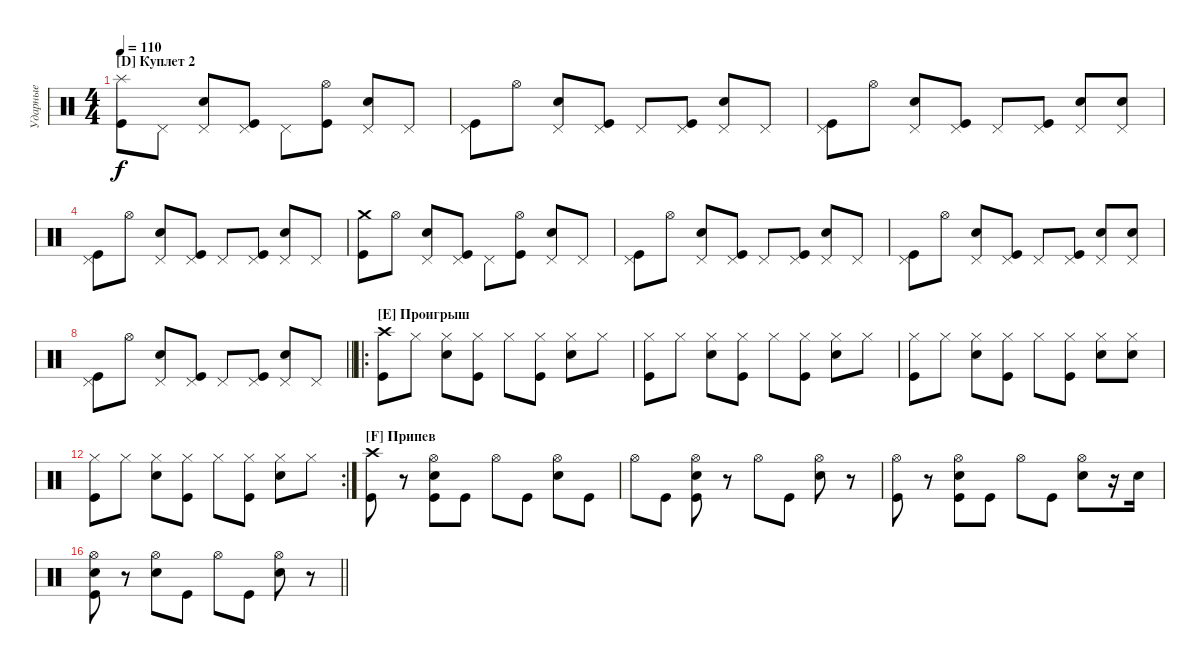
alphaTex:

\bracketExtendMode groupsimilarinstruments
\multiTrackTrackNamePolicy hidden
\firstSystemTrackNameMode fullname
\otherSystemsTrackNameMode fullname
\otherSystemsTrackNameOrientation horizontal
\defaultBarNumberDisplay FirstOfSystem
\track ("Ударные" "Drums") {multiBarRest instrument percussion}
\staff {score}
\articulation defaults
\ts (4 4)
\section ("D" "Куплет 2")
\tempo 110
\clef neutral
\ks c
("Splash (hit)" "Kick (hit)").8{dy f} "Pedal Hi-Hat (hit)".8 ("Pedal Hi-Hat (hit)" "Snare (hit) 2").8 ("Pedal Hi-Hat (hit)" "Kick (hit)").8 "Pedal Hi-Hat (hit)".8 ("Hi-Hat (open)" "Kick (hit)").8 ("Pedal Hi-Hat (hit)" "Snare (hit) 2").8 "Pedal Hi-Hat (hit)".8 |
("Pedal Hi-Hat (hit)" "Kick (hit)").8 "Hi-Hat (open)".8 ("Pedal Hi-Hat (hit)" "Snare (hit) 2").8 ("Pedal Hi-Hat (hit)" "Kick (hit)").8 "Pedal Hi-Hat (hit)".8 ("Pedal Hi-Hat (hit)" "Kick (hit)").8 ("Pedal Hi-Hat (hit)" "Snare (hit) 2").8 "Pedal Hi-Hat (hit)".8 |
("Pedal Hi-Hat (hit)" "Kick (hit)").8 "Hi-Hat (open)".8 ("Pedal Hi-Hat (hit)" "Snare (hit) 2").8 ("Pedal Hi-Hat (hit)" "Kick (hit)").8 "Pedal Hi-Hat (hit)".8 ("Pedal Hi-Hat (hit)" "Kick (hit)").8 ("Pedal Hi-Hat (hit)" "Snare (hit) 2").8 ("Pedal Hi-Hat (hit)" "Snare (hit) 2").8 |
("Pedal Hi-Hat (hit)" "Kick (hit)").8 "Hi-Hat (open)".8 ("Pedal Hi-Hat (hit)" "Snare (hit) 2").8 ("Pedal Hi-Hat (hit)" "Kick (hit)").8 "Pedal Hi-Hat (hit)".8 ("Pedal Hi-Hat (hit)" "Kick (hit)").8 ("Pedal Hi-Hat (hit)" "Snare (hit) 2").8 "Pedal Hi-Hat (hit)".8 |
("Crash medium (hit)" "Kick (hit)").8 "Hi-Hat (open)".8 ("Pedal Hi-Hat (hit)" "Snare (hit) 2").8 ("Pedal Hi-Hat (hit)" "Kick (hit)").8 "Pedal Hi-Hat (hit)".8 ("Hi-Hat (open)" "Kick (hit)").8 ("Pedal Hi-Hat (hit)" "Snare (hit) 2").8 "Pedal Hi-Hat (hit)".8 |
("Pedal Hi-Hat (hit)" "Kick (hit)").8 "Hi-Hat (open)".8 ("Pedal Hi-Hat (hit)" "Snare (hit) 2").8 ("Pedal Hi-Hat (hit)" "Kick (hit)").8 "Pedal Hi-Hat (hit)".8 ("Pedal Hi-Hat (hit)" "Kick (hit)").8 ("Pedal Hi-Hat (hit)" "Snare (hit) 2").8 "Pedal Hi-Hat (hit)".8 |
("Pedal Hi-Hat (hit)" "Kick (hit)").8 "Hi-Hat (open)".8 ("Pedal Hi-Hat (hit)" "Snare (hit) 2").8 ("Pedal Hi-Hat (hit)" "Kick (hit)").8 "Pedal Hi-Hat (hit)".8 ("Pedal Hi-Hat (hit)" "Kick (hit)").8 ("Pedal Hi-Hat (hit)" "Snare (hit) 2").8 ("Pedal Hi-Hat (hit)" "Snare (hit) 2").8 |
\barLineRight lightlight
("Pedal Hi-Hat (hit)" "Kick (hit)").8 "Hi-Hat (open)".8 ("Pedal Hi-Hat (hit)" "Snare (hit) 2").8 ("Pedal Hi-Hat (hit)" "Kick (hit)").8 "Pedal Hi-Hat (hit)".8 ("Pedal Hi-Hat (hit)" "Kick (hit)").8 ("Pedal Hi-Hat (hit)" "Snare (hit) 2").8 "Pedal Hi-Hat (hit)".8 |
\ro
\section ("E" "Проигрыш")
("Crash high (hit)" "Kick (hit)").8 "Hi-Hat (closed)".8 ("Hi-Hat (closed)" "Snare (hit) 2").8 ("Hi-Hat (closed)" "Kick (hit)").8 "Hi-Hat (closed)".8 ("Hi-Hat (closed)" "Kick (hit)").8 ("Hi-Hat (closed)" "Snare (hit) 2").8 "Hi-Hat (closed)".8 |
("Hi-Hat (closed)" "Kick (hit)").8 "Hi-Hat (closed)".8 ("Hi-Hat (closed)" "Snare (hit) 2").8 ("Hi-Hat (closed)" "Kick (hit)").8 "Hi-Hat (closed)".8 ("Hi-Hat (closed)" "Kick (hit)").8 ("Hi-Hat (closed)" "Snare (hit) 2").8 "Hi-Hat (closed)".8 |
("Hi-Hat (closed)" "Kick (hit)").8 "Hi-Hat (closed)".8 ("Hi-Hat (closed)" "Snare (hit) 2").8 ("Hi-Hat (closed)" "Kick (hit)").8 "Hi-Hat (closed)".8 ("Hi-Hat (closed)" "Kick (hit)").8 ("Hi-Hat (closed)" "Snare (hit) 2").8 ("Hi-Hat (closed)" "Snare (hit) 2").8 |
\rc 2
("Hi-Hat (closed)" "Kick (hit)").8 "Hi-Hat (closed)".8 ("Hi-Hat (closed)" "Snare (hit) 2").8 ("Hi-Hat (closed)" "Kick (hit)").8 "Hi-Hat (closed)".8 ("Hi-Hat (closed)" "Kick (hit)").8 ("Hi-Hat (closed)" "Snare (hit) 2").8 "Hi-Hat (closed)".8 |
\section ("F" "Припев")
("Crash high (hit)" "Kick (hit)").8 r.8 ("Hi-Hat (open)" "Snare (hit) 2" "Kick (hit)").8 "Kick (hit)".8 "Hi-Hat (open)".8 "Kick (hit)".8 ("Hi-Hat (open)" "Snare (hit) 2").8 "Kick (hit)".8 |
"Hi-Hat (open)".8 "Kick (hit)".8 ("Hi-Hat (open)" "Snare (hit) 2" "Kick (hit)").8 r.8 "Hi-Hat (open)".8 "Kick (hit)".8 ("Hi-Hat (open)" "Snare (hit) 2").8 r.8 |
("Hi-Hat (open)" "Kick (hit)").8 r.8 ("Hi-Hat (open)" "Snare (hit) 2" "Kick (hit)").8 "Kick (hit)".8 "Hi-Hat (open)".8 "Kick (hit)".8 ("Hi-Hat (open)" "Snare (hit) 2").8 r.16 "Snare (hit) 2".16 |
\barLineRight lightlight
("Hi-Hat (open)" "Snare (hit) 2" "Kick (hit)").8 r.8 ("Hi-Hat (open)" "Snare (hit) 2").8 "Kick (hit)".8 "Hi-Hat (open)".8 "Kick (hit)".8 ("Hi-Hat (open)" "Snare (hit) 2").8 r.8
